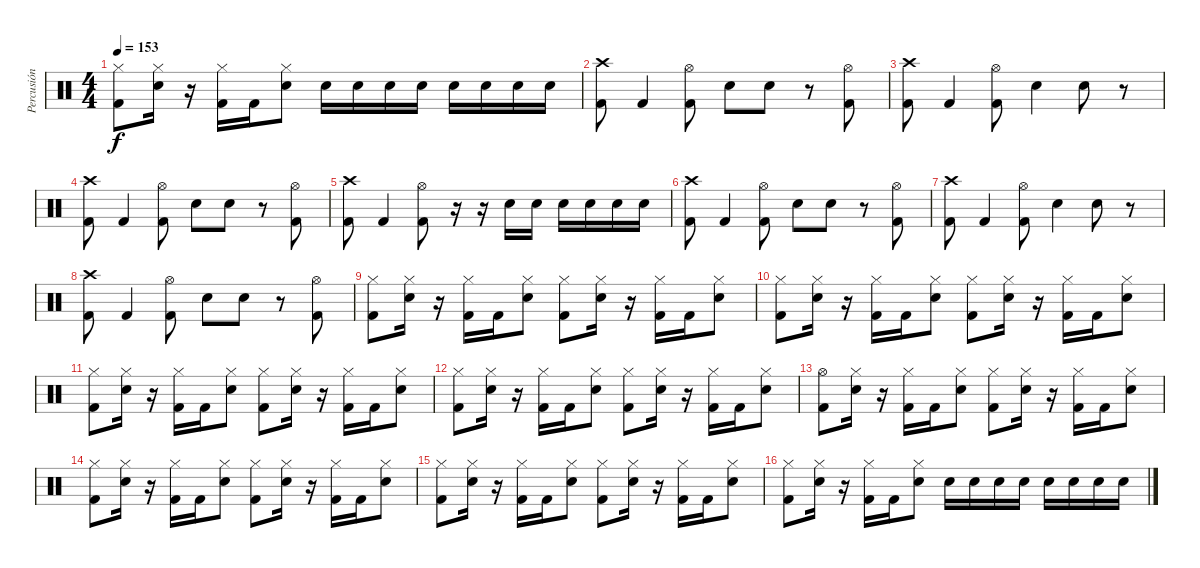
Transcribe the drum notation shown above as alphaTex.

\track ("Percusión" "Percusión") {instrument percussion}
\staff {score}
\articulation defaults
\ts (4 4)
\tempo 153
\clef neutral
\ks c
("Hi-Hat (closed)" "Kick (hit) 2").8{dy f} ("Hi-Hat (closed)" "Electric Snare (hit)").16 r.16 ("Hi-Hat (closed)" "Kick (hit) 2").16 "Kick (hit) 2".16 ("Hi-Hat (closed)" "Electric Snare (hit)").8 "Electric Snare (hit)".16 "Electric Snare (hit)".16 "Electric Snare (hit)".16 "Electric Snare (hit)".16 "Electric Snare (hit)".16 "Electric Snare (hit)".16 "Electric Snare (hit)".16 "Electric Snare (hit)".16 |
("Crash high (hit)" "Kick (hit) 2").8 "Kick (hit) 2".4 ("Hi-Hat (open)" "Kick (hit) 2").8 "Electric Snare (hit)".8 "Electric Snare (hit)".8 r.8 ("Hi-Hat (open)" "Kick (hit) 2").8 |
("Crash high (hit)" "Kick (hit) 2").8 "Kick (hit) 2".4 ("Hi-Hat (open)" "Kick (hit) 2").8 "Electric Snare (hit)".4 "Electric Snare (hit)".8 r.8 |
("Crash high (hit)" "Kick (hit) 2").8 "Kick (hit) 2".4 ("Hi-Hat (open)" "Kick (hit) 2").8 "Electric Snare (hit)".8 "Electric Snare (hit)".8 r.8 ("Hi-Hat (open)" "Kick (hit) 2").8 |
("Crash high (hit)" "Kick (hit) 2").8 "Kick (hit) 2".4 ("Hi-Hat (open)" "Kick (hit) 2").8 r.16 r.16 "Electric Snare (hit)".16 "Electric Snare (hit)".16 "Electric Snare (hit)".16 "Electric Snare (hit)".16 "Electric Snare (hit)".16 "Electric Snare (hit)".16 |
("Crash high (hit)" "Kick (hit) 2").8 "Kick (hit) 2".4 ("Hi-Hat (open)" "Kick (hit) 2").8 "Electric Snare (hit)".8 "Electric Snare (hit)".8 r.8 ("Hi-Hat (open)" "Kick (hit) 2").8 |
("Crash high (hit)" "Kick (hit) 2").8 "Kick (hit) 2".4 ("Hi-Hat (open)" "Kick (hit) 2").8 "Electric Snare (hit)".4 "Electric Snare (hit)".8 r.8 |
("Crash high (hit)" "Kick (hit) 2").8 "Kick (hit) 2".4 ("Hi-Hat (open)" "Kick (hit) 2").8 "Electric Snare (hit)".8 "Electric Snare (hit)".8 r.8 ("Hi-Hat (open)" "Kick (hit) 2").8 |
("Hi-Hat (closed)" "Kick (hit) 2").8 ("Hi-Hat (closed)" "Electric Snare (hit)").16 r.16 ("Hi-Hat (closed)" "Kick (hit) 2").16 "Kick (hit) 2".16 ("Hi-Hat (closed)" "Electric Snare (hit)").8 ("Hi-Hat (closed)" "Kick (hit) 2").8 ("Hi-Hat (closed)" "Electric Snare (hit)").16 r.16 ("Hi-Hat (closed)" "Kick (hit) 2").16 "Kick (hit) 2".16 ("Hi-Hat (closed)" "Electric Snare (hit)").8 |
("Hi-Hat (closed)" "Kick (hit) 2").8 ("Hi-Hat (closed)" "Electric Snare (hit)").16 r.16 ("Hi-Hat (closed)" "Kick (hit) 2").16 "Kick (hit) 2".16 ("Hi-Hat (closed)" "Electric Snare (hit)").8 ("Hi-Hat (closed)" "Kick (hit) 2").8 ("Hi-Hat (closed)" "Electric Snare (hit)").16 r.16 ("Hi-Hat (closed)" "Kick (hit) 2").16 "Kick (hit) 2".16 ("Hi-Hat (closed)" "Electric Snare (hit)").8 |
("Hi-Hat (closed)" "Kick (hit) 2").8 ("Hi-Hat (closed)" "Electric Snare (hit)").16 r.16 ("Hi-Hat (closed)" "Kick (hit) 2").16 "Kick (hit) 2".16 ("Hi-Hat (closed)" "Electric Snare (hit)").8 ("Hi-Hat (closed)" "Kick (hit) 2").8 ("Hi-Hat (closed)" "Electric Snare (hit)").16 r.16 ("Hi-Hat (closed)" "Kick (hit) 2").16 "Kick (hit) 2".16 ("Hi-Hat (closed)" "Electric Snare (hit)").8 |
("Hi-Hat (closed)" "Kick (hit) 2").8 ("Hi-Hat (closed)" "Electric Snare (hit)").16 r.16 ("Hi-Hat (closed)" "Kick (hit) 2").16 "Kick (hit) 2".16 ("Hi-Hat (closed)" "Electric Snare (hit)").8 ("Hi-Hat (closed)" "Kick (hit) 2").8 ("Hi-Hat (closed)" "Electric Snare (hit)").16 r.16 ("Hi-Hat (closed)" "Kick (hit) 2").16 "Kick (hit) 2".16 ("Hi-Hat (closed)" "Electric Snare (hit)").8 |
("Hi-Hat (open)" "Kick (hit) 2").8 ("Hi-Hat (closed)" "Electric Snare (hit)").16 r.16 ("Hi-Hat (closed)" "Kick (hit) 2").16 "Kick (hit) 2".16 ("Hi-Hat (closed)" "Electric Snare (hit)").8 ("Hi-Hat (closed)" "Kick (hit) 2").8 ("Hi-Hat (closed)" "Electric Snare (hit)").16 r.16 ("Hi-Hat (closed)" "Kick (hit) 2").16 "Kick (hit) 2".16 ("Hi-Hat (closed)" "Electric Snare (hit)").8 |
("Hi-Hat (closed)" "Kick (hit) 2").8 ("Hi-Hat (closed)" "Electric Snare (hit)").16 r.16 ("Hi-Hat (closed)" "Kick (hit) 2").16 "Kick (hit) 2".16 ("Hi-Hat (closed)" "Electric Snare (hit)").8 ("Hi-Hat (closed)" "Kick (hit) 2").8 ("Hi-Hat (closed)" "Electric Snare (hit)").16 r.16 ("Hi-Hat (closed)" "Kick (hit) 2").16 "Kick (hit) 2".16 ("Hi-Hat (closed)" "Electric Snare (hit)").8 |
("Hi-Hat (closed)" "Kick (hit) 2").8 ("Hi-Hat (closed)" "Electric Snare (hit)").16 r.16 ("Hi-Hat (closed)" "Kick (hit) 2").16 "Kick (hit) 2".16 ("Hi-Hat (closed)" "Electric Snare (hit)").8 ("Hi-Hat (closed)" "Kick (hit) 2").8 ("Hi-Hat (closed)" "Electric Snare (hit)").16 r.16 ("Hi-Hat (closed)" "Kick (hit) 2").16 "Kick (hit) 2".16 ("Hi-Hat (closed)" "Electric Snare (hit)").8 |
("Hi-Hat (closed)" "Kick (hit) 2").8 ("Hi-Hat (closed)" "Electric Snare (hit)").16 r.16 ("Hi-Hat (closed)" "Kick (hit) 2").16 "Kick (hit) 2".16 ("Hi-Hat (closed)" "Electric Snare (hit)").8 "Electric Snare (hit)".16 "Electric Snare (hit)".16 "Electric Snare (hit)".16 "Electric Snare (hit)".16 "Electric Snare (hit)".16 "Electric Snare (hit)".16 "Electric Snare (hit)".16 "Electric Snare (hit)".16
